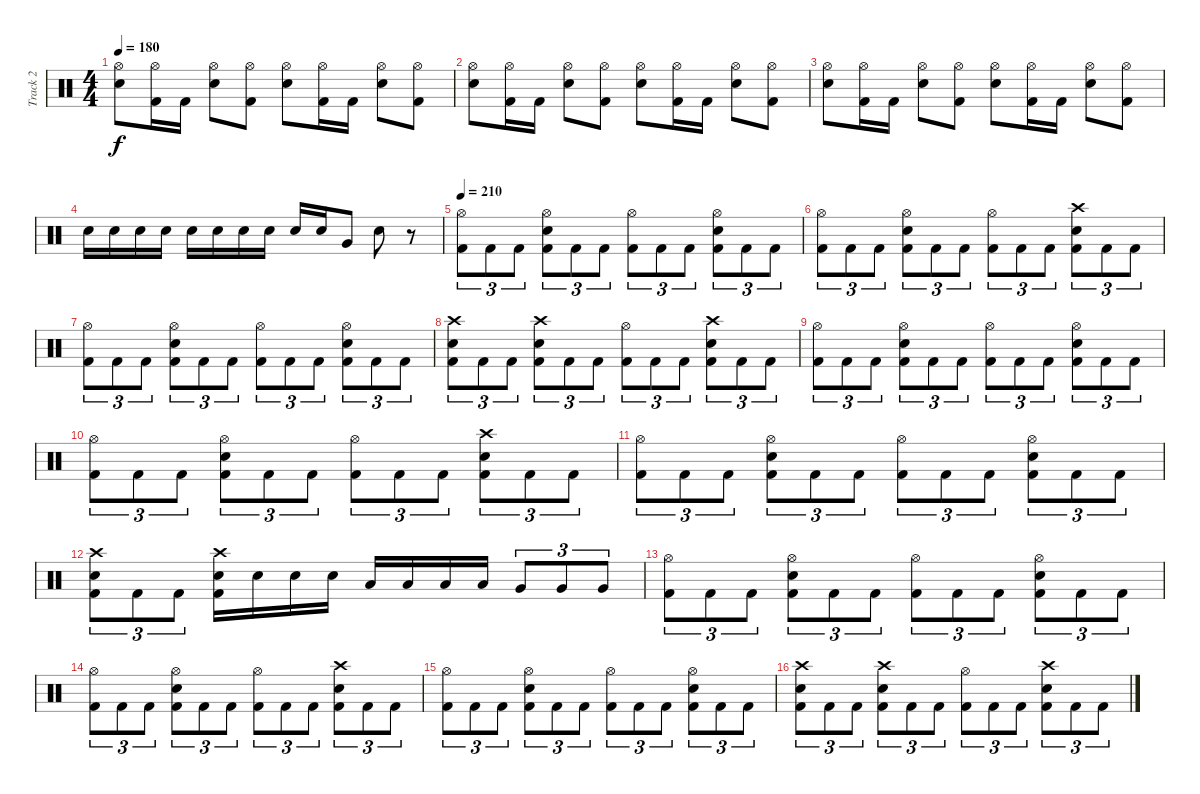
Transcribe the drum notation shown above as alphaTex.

\track ("Track 2" "Track 2") {instrument percussion}
\staff {score}
\articulation defaults
\ts (4 4)
\tempo 180
\clef neutral
\ks c
("Hi-Hat (open)" "Snare (hit) 2").8{dy f} ("Hi-Hat (open)" "Kick (hit) 2").16 "Kick (hit) 2".16 ("Hi-Hat (open)" "Snare (hit) 2").8 ("Hi-Hat (open)" "Kick (hit) 2").8 ("Hi-Hat (open)" "Snare (hit) 2").8 ("Hi-Hat (open)" "Kick (hit) 2").16 "Kick (hit) 2".16 ("Hi-Hat (open)" "Snare (hit) 2").8 ("Hi-Hat (open)" "Kick (hit) 2").8 |
("Hi-Hat (open)" "Snare (hit) 2").8 ("Hi-Hat (open)" "Kick (hit) 2").16 "Kick (hit) 2".16 ("Hi-Hat (open)" "Snare (hit) 2").8 ("Hi-Hat (open)" "Kick (hit) 2").8 ("Hi-Hat (open)" "Snare (hit) 2").8 ("Hi-Hat (open)" "Kick (hit) 2").16 "Kick (hit) 2".16 ("Hi-Hat (open)" "Snare (hit) 2").8 ("Hi-Hat (open)" "Kick (hit) 2").8 |
("Hi-Hat (open)" "Snare (hit) 2").8 ("Hi-Hat (open)" "Kick (hit) 2").16 "Kick (hit) 2".16 ("Hi-Hat (open)" "Snare (hit) 2").8 ("Hi-Hat (open)" "Kick (hit) 2").8 ("Hi-Hat (open)" "Snare (hit) 2").8 ("Hi-Hat (open)" "Kick (hit) 2").16 "Kick (hit) 2".16 ("Hi-Hat (open)" "Snare (hit) 2").8 ("Hi-Hat (open)" "Kick (hit) 2").8 |
"Snare (hit) 2".16 "Snare (hit) 2".16 "Snare (hit) 2".16 "Snare (hit) 2".16 "Snare (hit) 2".16 "Snare (hit) 2".16 "Snare (hit) 2".16 "Snare (hit) 2".16 "Snare (hit) 2".16 "Snare (hit) 2".16 "Very Low Tom (hit)".8 "Snare (hit) 2".8 r.8 |
\tempo 210
("Hi-Hat (open)" "Kick (hit) 2").8{tu (3 2)} "Kick (hit) 2".8{tu (3 2)} "Kick (hit) 2".8{tu (3 2)} ("Hi-Hat (open)" "Snare (hit) 2" "Kick (hit) 2").8{tu (3 2)} "Kick (hit) 2".8{tu (3 2)} "Kick (hit) 2".8{tu (3 2)} ("Hi-Hat (open)" "Kick (hit) 2").8{tu (3 2)} "Kick (hit) 2".8{tu (3 2)} "Kick (hit) 2".8{tu (3 2)} ("Hi-Hat (open)" "Snare (hit) 2" "Kick (hit) 2").8{tu (3 2)} "Kick (hit) 2".8{tu (3 2)} "Kick (hit) 2".8{tu (3 2)} |
("Hi-Hat (open)" "Kick (hit) 2").8{tu (3 2)} "Kick (hit) 2".8{tu (3 2)} "Kick (hit) 2".8{tu (3 2)} ("Hi-Hat (open)" "Snare (hit) 2" "Kick (hit) 2").8{tu (3 2)} "Kick (hit) 2".8{tu (3 2)} "Kick (hit) 2".8{tu (3 2)} ("Hi-Hat (open)" "Kick (hit) 2").8{tu (3 2)} "Kick (hit) 2".8{tu (3 2)} "Kick (hit) 2".8{tu (3 2)} ("Crash high (hit)" "Snare (hit) 2" "Kick (hit) 2").8{tu (3 2)} "Kick (hit) 2".8{tu (3 2)} "Kick (hit) 2".8{tu (3 2)} |
("Hi-Hat (open)" "Kick (hit) 2").8{tu (3 2)} "Kick (hit) 2".8{tu (3 2)} "Kick (hit) 2".8{tu (3 2)} ("Hi-Hat (open)" "Snare (hit) 2" "Kick (hit) 2").8{tu (3 2)} "Kick (hit) 2".8{tu (3 2)} "Kick (hit) 2".8{tu (3 2)} ("Hi-Hat (open)" "Kick (hit) 2").8{tu (3 2)} "Kick (hit) 2".8{tu (3 2)} "Kick (hit) 2".8{tu (3 2)} ("Hi-Hat (open)" "Snare (hit) 2" "Kick (hit) 2").8{tu (3 2)} "Kick (hit) 2".8{tu (3 2)} "Kick (hit) 2".8{tu (3 2)} |
("Crash high (hit)" "Snare (hit) 2" "Kick (hit) 2").8{tu (3 2)} "Kick (hit) 2".8{tu (3 2)} "Kick (hit) 2".8{tu (3 2)} ("Crash high (hit)" "Snare (hit) 2" "Kick (hit) 2").8{tu (3 2)} "Kick (hit) 2".8{tu (3 2)} "Kick (hit) 2".8{tu (3 2)} ("Hi-Hat (open)" "Kick (hit) 2").8{tu (3 2)} "Kick (hit) 2".8{tu (3 2)} "Kick (hit) 2".8{tu (3 2)} ("Crash high (hit)" "Snare (hit) 2" "Kick (hit) 2").8{tu (3 2)} "Kick (hit) 2".8{tu (3 2)} "Kick (hit) 2".8{tu (3 2)} |
("Hi-Hat (open)" "Kick (hit) 2").8{tu (3 2)} "Kick (hit) 2".8{tu (3 2)} "Kick (hit) 2".8{tu (3 2)} ("Hi-Hat (open)" "Snare (hit) 2" "Kick (hit) 2").8{tu (3 2)} "Kick (hit) 2".8{tu (3 2)} "Kick (hit) 2".8{tu (3 2)} ("Hi-Hat (open)" "Kick (hit) 2").8{tu (3 2)} "Kick (hit) 2".8{tu (3 2)} "Kick (hit) 2".8{tu (3 2)} ("Hi-Hat (open)" "Snare (hit) 2" "Kick (hit) 2").8{tu (3 2)} "Kick (hit) 2".8{tu (3 2)} "Kick (hit) 2".8{tu (3 2)} |
("Hi-Hat (open)" "Kick (hit) 2").8{tu (3 2)} "Kick (hit) 2".8{tu (3 2)} "Kick (hit) 2".8{tu (3 2)} ("Hi-Hat (open)" "Snare (hit) 2" "Kick (hit) 2").8{tu (3 2)} "Kick (hit) 2".8{tu (3 2)} "Kick (hit) 2".8{tu (3 2)} ("Hi-Hat (open)" "Kick (hit) 2").8{tu (3 2)} "Kick (hit) 2".8{tu (3 2)} "Kick (hit) 2".8{tu (3 2)} ("Crash high (hit)" "Snare (hit) 2" "Kick (hit) 2").8{tu (3 2)} "Kick (hit) 2".8{tu (3 2)} "Kick (hit) 2".8{tu (3 2)} |
("Hi-Hat (open)" "Kick (hit) 2").8{tu (3 2)} "Kick (hit) 2".8{tu (3 2)} "Kick (hit) 2".8{tu (3 2)} ("Hi-Hat (open)" "Snare (hit) 2" "Kick (hit) 2").8{tu (3 2)} "Kick (hit) 2".8{tu (3 2)} "Kick (hit) 2".8{tu (3 2)} ("Hi-Hat (open)" "Kick (hit) 2").8{tu (3 2)} "Kick (hit) 2".8{tu (3 2)} "Kick (hit) 2".8{tu (3 2)} ("Hi-Hat (open)" "Snare (hit) 2" "Kick (hit) 2").8{tu (3 2)} "Kick (hit) 2".8{tu (3 2)} "Kick (hit) 2".8{tu (3 2)} |
("Crash high (hit)" "Snare (hit) 2" "Kick (hit) 2").8{tu (3 2)} "Kick (hit) 2".8{tu (3 2)} "Kick (hit) 2".8{tu (3 2)} ("Crash high (hit)" "Snare (hit) 2" "Kick (hit) 2").16 "Snare (hit) 2".16 "Snare (hit) 2".16 "Snare (hit) 2".16 "Low Tom (hit)".16 "Low Tom (hit)".16 "Low Tom (hit)".16 "Low Tom (hit)".16 "Very Low Tom (hit)".8{tu (3 2)} "Very Low Tom (hit)".8{tu (3 2)} "Very Low Tom (hit)".8{tu (3 2)} |
("Hi-Hat (open)" "Kick (hit) 2").8{tu (3 2)} "Kick (hit) 2".8{tu (3 2)} "Kick (hit) 2".8{tu (3 2)} ("Hi-Hat (open)" "Snare (hit) 2" "Kick (hit) 2").8{tu (3 2)} "Kick (hit) 2".8{tu (3 2)} "Kick (hit) 2".8{tu (3 2)} ("Hi-Hat (open)" "Kick (hit) 2").8{tu (3 2)} "Kick (hit) 2".8{tu (3 2)} "Kick (hit) 2".8{tu (3 2)} ("Hi-Hat (open)" "Snare (hit) 2" "Kick (hit) 2").8{tu (3 2)} "Kick (hit) 2".8{tu (3 2)} "Kick (hit) 2".8{tu (3 2)} |
("Hi-Hat (open)" "Kick (hit) 2").8{tu (3 2)} "Kick (hit) 2".8{tu (3 2)} "Kick (hit) 2".8{tu (3 2)} ("Hi-Hat (open)" "Snare (hit) 2" "Kick (hit) 2").8{tu (3 2)} "Kick (hit) 2".8{tu (3 2)} "Kick (hit) 2".8{tu (3 2)} ("Hi-Hat (open)" "Kick (hit) 2").8{tu (3 2)} "Kick (hit) 2".8{tu (3 2)} "Kick (hit) 2".8{tu (3 2)} ("Crash high (hit)" "Snare (hit) 2" "Kick (hit) 2").8{tu (3 2)} "Kick (hit) 2".8{tu (3 2)} "Kick (hit) 2".8{tu (3 2)} |
("Hi-Hat (open)" "Kick (hit) 2").8{tu (3 2)} "Kick (hit) 2".8{tu (3 2)} "Kick (hit) 2".8{tu (3 2)} ("Hi-Hat (open)" "Snare (hit) 2" "Kick (hit) 2").8{tu (3 2)} "Kick (hit) 2".8{tu (3 2)} "Kick (hit) 2".8{tu (3 2)} ("Hi-Hat (open)" "Kick (hit) 2").8{tu (3 2)} "Kick (hit) 2".8{tu (3 2)} "Kick (hit) 2".8{tu (3 2)} ("Hi-Hat (open)" "Snare (hit) 2" "Kick (hit) 2").8{tu (3 2)} "Kick (hit) 2".8{tu (3 2)} "Kick (hit) 2".8{tu (3 2)} |
("Crash high (hit)" "Snare (hit) 2" "Kick (hit) 2").8{tu (3 2)} "Kick (hit) 2".8{tu (3 2)} "Kick (hit) 2".8{tu (3 2)} ("Crash high (hit)" "Snare (hit) 2" "Kick (hit) 2").8{tu (3 2)} "Kick (hit) 2".8{tu (3 2)} "Kick (hit) 2".8{tu (3 2)} ("Hi-Hat (open)" "Kick (hit) 2").8{tu (3 2)} "Kick (hit) 2".8{tu (3 2)} "Kick (hit) 2".8{tu (3 2)} ("Crash high (hit)" "Snare (hit) 2" "Kick (hit) 2").8{tu (3 2)} "Kick (hit) 2".8{tu (3 2)} "Kick (hit) 2".8{tu (3 2)}
